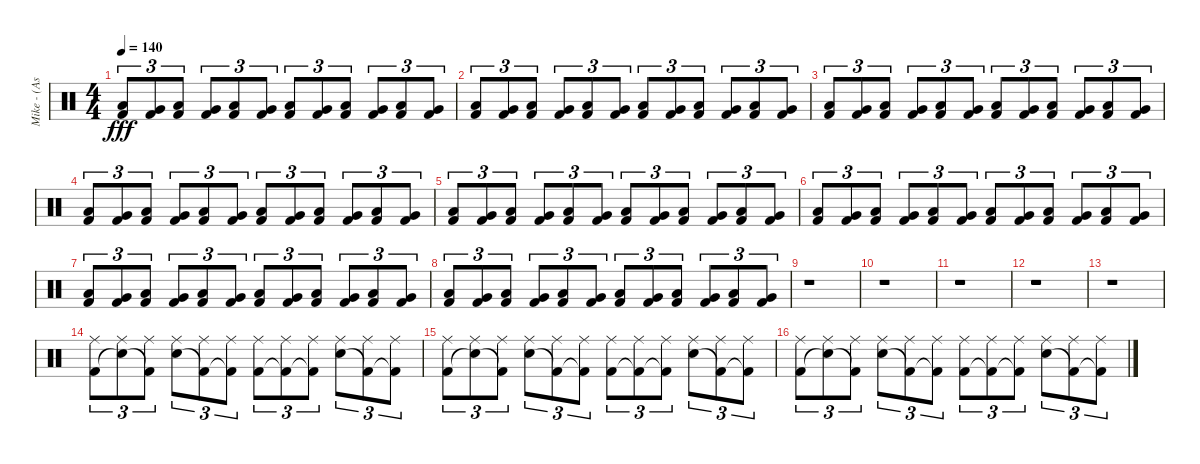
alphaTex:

\track ("Mike - (Assault and Battery)" "Mike - (As") {instrument percussion}
\staff {score}
\articulation defaults
\ts (4 4)
\tempo 140
\clef neutral
\ks c
("Low Floor Tom (hit)" "Kick (hit) 2").8{tu (3 2) dy fff} ("Very Low Tom (hit)" "Kick (hit) 2").8{tu (3 2)} ("Low Floor Tom (hit)" "Kick (hit) 2").8{tu (3 2)} ("Very Low Tom (hit)" "Kick (hit) 2").8{tu (3 2)} ("Low Floor Tom (hit)" "Kick (hit) 2").8{tu (3 2)} ("Very Low Tom (hit)" "Kick (hit) 2").8{tu (3 2)} ("Low Floor Tom (hit)" "Kick (hit) 2").8{tu (3 2)} ("Very Low Tom (hit)" "Kick (hit) 2").8{tu (3 2)} ("Low Floor Tom (hit)" "Kick (hit) 2").8{tu (3 2)} ("Very Low Tom (hit)" "Kick (hit) 2").8{tu (3 2)} ("Low Floor Tom (hit)" "Kick (hit) 2").8{tu (3 2)} ("Very Low Tom (hit)" "Kick (hit) 2").8{tu (3 2)} |
("Low Floor Tom (hit)" "Kick (hit) 2").8{tu (3 2)} ("Very Low Tom (hit)" "Kick (hit) 2").8{tu (3 2)} ("Low Floor Tom (hit)" "Kick (hit) 2").8{tu (3 2)} ("Very Low Tom (hit)" "Kick (hit) 2").8{tu (3 2)} ("Low Floor Tom (hit)" "Kick (hit) 2").8{tu (3 2)} ("Very Low Tom (hit)" "Kick (hit) 2").8{tu (3 2)} ("Low Floor Tom (hit)" "Kick (hit) 2").8{tu (3 2)} ("Very Low Tom (hit)" "Kick (hit) 2").8{tu (3 2)} ("Low Floor Tom (hit)" "Kick (hit) 2").8{tu (3 2)} ("Very Low Tom (hit)" "Kick (hit) 2").8{tu (3 2)} ("Low Floor Tom (hit)" "Kick (hit) 2").8{tu (3 2)} ("Very Low Tom (hit)" "Kick (hit) 2").8{tu (3 2)} |
("Low Floor Tom (hit)" "Kick (hit) 2").8{tu (3 2)} ("Very Low Tom (hit)" "Kick (hit) 2").8{tu (3 2)} ("Low Floor Tom (hit)" "Kick (hit) 2").8{tu (3 2)} ("Very Low Tom (hit)" "Kick (hit) 2").8{tu (3 2)} ("Low Floor Tom (hit)" "Kick (hit) 2").8{tu (3 2)} ("Very Low Tom (hit)" "Kick (hit) 2").8{tu (3 2)} ("Low Floor Tom (hit)" "Kick (hit) 2").8{tu (3 2)} ("Very Low Tom (hit)" "Kick (hit) 2").8{tu (3 2)} ("Low Floor Tom (hit)" "Kick (hit) 2").8{tu (3 2)} ("Very Low Tom (hit)" "Kick (hit) 2").8{tu (3 2)} ("Low Floor Tom (hit)" "Kick (hit) 2").8{tu (3 2)} ("Very Low Tom (hit)" "Kick (hit) 2").8{tu (3 2)} |
("Low Floor Tom (hit)" "Kick (hit) 2").8{tu (3 2)} ("Very Low Tom (hit)" "Kick (hit) 2").8{tu (3 2)} ("Low Floor Tom (hit)" "Kick (hit) 2").8{tu (3 2)} ("Very Low Tom (hit)" "Kick (hit) 2").8{tu (3 2)} ("Low Floor Tom (hit)" "Kick (hit) 2").8{tu (3 2)} ("Very Low Tom (hit)" "Kick (hit) 2").8{tu (3 2)} ("Low Floor Tom (hit)" "Kick (hit) 2").8{tu (3 2)} ("Very Low Tom (hit)" "Kick (hit) 2").8{tu (3 2)} ("Low Floor Tom (hit)" "Kick (hit) 2").8{tu (3 2)} ("Very Low Tom (hit)" "Kick (hit) 2").8{tu (3 2)} ("Low Floor Tom (hit)" "Kick (hit) 2").8{tu (3 2)} ("Very Low Tom (hit)" "Kick (hit) 2").8{tu (3 2)} |
("Low Floor Tom (hit)" "Kick (hit) 2").8{tu (3 2)} ("Very Low Tom (hit)" "Kick (hit) 2").8{tu (3 2)} ("Low Floor Tom (hit)" "Kick (hit) 2").8{tu (3 2)} ("Very Low Tom (hit)" "Kick (hit) 2").8{tu (3 2)} ("Low Floor Tom (hit)" "Kick (hit) 2").8{tu (3 2)} ("Very Low Tom (hit)" "Kick (hit) 2").8{tu (3 2)} ("Low Floor Tom (hit)" "Kick (hit) 2").8{tu (3 2)} ("Very Low Tom (hit)" "Kick (hit) 2").8{tu (3 2)} ("Low Floor Tom (hit)" "Kick (hit) 2").8{tu (3 2)} ("Very Low Tom (hit)" "Kick (hit) 2").8{tu (3 2)} ("Low Floor Tom (hit)" "Kick (hit) 2").8{tu (3 2)} ("Very Low Tom (hit)" "Kick (hit) 2").8{tu (3 2)} |
("Low Floor Tom (hit)" "Kick (hit) 2").8{tu (3 2)} ("Very Low Tom (hit)" "Kick (hit) 2").8{tu (3 2)} ("Low Floor Tom (hit)" "Kick (hit) 2").8{tu (3 2)} ("Very Low Tom (hit)" "Kick (hit) 2").8{tu (3 2)} ("Low Floor Tom (hit)" "Kick (hit) 2").8{tu (3 2)} ("Very Low Tom (hit)" "Kick (hit) 2").8{tu (3 2)} ("Low Floor Tom (hit)" "Kick (hit) 2").8{tu (3 2)} ("Very Low Tom (hit)" "Kick (hit) 2").8{tu (3 2)} ("Low Floor Tom (hit)" "Kick (hit) 2").8{tu (3 2)} ("Very Low Tom (hit)" "Kick (hit) 2").8{tu (3 2)} ("Low Floor Tom (hit)" "Kick (hit) 2").8{tu (3 2)} ("Very Low Tom (hit)" "Kick (hit) 2").8{tu (3 2)} |
("Low Floor Tom (hit)" "Kick (hit) 2").8{tu (3 2)} ("Very Low Tom (hit)" "Kick (hit) 2").8{tu (3 2)} ("Low Floor Tom (hit)" "Kick (hit) 2").8{tu (3 2)} ("Very Low Tom (hit)" "Kick (hit) 2").8{tu (3 2)} ("Low Floor Tom (hit)" "Kick (hit) 2").8{tu (3 2)} ("Very Low Tom (hit)" "Kick (hit) 2").8{tu (3 2)} ("Low Floor Tom (hit)" "Kick (hit) 2").8{tu (3 2)} ("Very Low Tom (hit)" "Kick (hit) 2").8{tu (3 2)} ("Low Floor Tom (hit)" "Kick (hit) 2").8{tu (3 2)} ("Very Low Tom (hit)" "Kick (hit) 2").8{tu (3 2)} ("Low Floor Tom (hit)" "Kick (hit) 2").8{tu (3 2)} ("Very Low Tom (hit)" "Kick (hit) 2").8{tu (3 2)} |
("Low Floor Tom (hit)" "Kick (hit) 2").8{tu (3 2)} ("Very Low Tom (hit)" "Kick (hit) 2").8{tu (3 2)} ("Low Floor Tom (hit)" "Kick (hit) 2").8{tu (3 2)} ("Very Low Tom (hit)" "Kick (hit) 2").8{tu (3 2)} ("Low Floor Tom (hit)" "Kick (hit) 2").8{tu (3 2)} ("Very Low Tom (hit)" "Kick (hit) 2").8{tu (3 2)} ("Low Floor Tom (hit)" "Kick (hit) 2").8{tu (3 2)} ("Very Low Tom (hit)" "Kick (hit) 2").8{tu (3 2)} ("Low Floor Tom (hit)" "Kick (hit) 2").8{tu (3 2)} ("Very Low Tom (hit)" "Kick (hit) 2").8{tu (3 2)} ("Low Floor Tom (hit)" "Kick (hit) 2").8{tu (3 2)} ("Very Low Tom (hit)" "Kick (hit) 2").8{tu (3 2)} |
r.1 |
r.1 |
r.1 |
r.1 |
r.1 |
("Ride (middle)" "Kick (hit) 2").8{tu (3 2)} ("Ride (middle)" "Snare (hit) 2"{t}).8{tu (3 2)} ("Ride (middle)" "Kick (hit) 2"{t}).8{tu (3 2)} ("Ride (middle)" "Snare (hit) 2").8{tu (3 2)} ("Ride (middle)" "Kick (hit) 2"{t}).8{tu (3 2)} ("Ride (middle)" "Kick (hit) 2"{t}).8{tu (3 2)} ("Ride (middle)" "Kick (hit) 2").8{tu (3 2)} ("Ride (middle)" "Kick (hit) 2"{t}).8{tu (3 2)} ("Ride (middle)" "Kick (hit) 2"{t}).8{tu (3 2)} ("Ride (middle)" "Snare (hit) 2").8{tu (3 2)} ("Ride (middle)" "Kick (hit) 2"{t}).8{tu (3 2)} ("Ride (middle)" "Kick (hit) 2"{t}).8{tu (3 2)} |
("Ride (middle)" "Kick (hit) 2").8{tu (3 2)} ("Ride (middle)" "Snare (hit) 2"{t}).8{tu (3 2)} ("Ride (middle)" "Kick (hit) 2"{t}).8{tu (3 2)} ("Ride (middle)" "Snare (hit) 2").8{tu (3 2)} ("Ride (middle)" "Kick (hit) 2"{t}).8{tu (3 2)} ("Ride (middle)" "Kick (hit) 2"{t}).8{tu (3 2)} ("Ride (middle)" "Kick (hit) 2").8{tu (3 2)} ("Ride (middle)" "Kick (hit) 2"{t}).8{tu (3 2)} ("Ride (middle)" "Kick (hit) 2"{t}).8{tu (3 2)} ("Ride (middle)" "Snare (hit) 2").8{tu (3 2)} ("Ride (middle)" "Kick (hit) 2"{t}).8{tu (3 2)} ("Ride (middle)" "Kick (hit) 2"{t}).8{tu (3 2)} |
("Ride (middle)" "Kick (hit) 2").8{tu (3 2)} ("Ride (middle)" "Snare (hit) 2"{t}).8{tu (3 2)} ("Ride (middle)" "Kick (hit) 2"{t}).8{tu (3 2)} ("Ride (middle)" "Snare (hit) 2").8{tu (3 2)} ("Ride (middle)" "Kick (hit) 2"{t}).8{tu (3 2)} ("Ride (middle)" "Kick (hit) 2"{t}).8{tu (3 2)} ("Ride (middle)" "Kick (hit) 2").8{tu (3 2)} ("Ride (middle)" "Kick (hit) 2"{t}).8{tu (3 2)} ("Ride (middle)" "Kick (hit) 2"{t}).8{tu (3 2)} ("Ride (middle)" "Snare (hit) 2").8{tu (3 2)} ("Ride (middle)" "Kick (hit) 2"{t}).8{tu (3 2)} ("Ride (middle)" "Kick (hit) 2"{t}).8{tu (3 2)}
